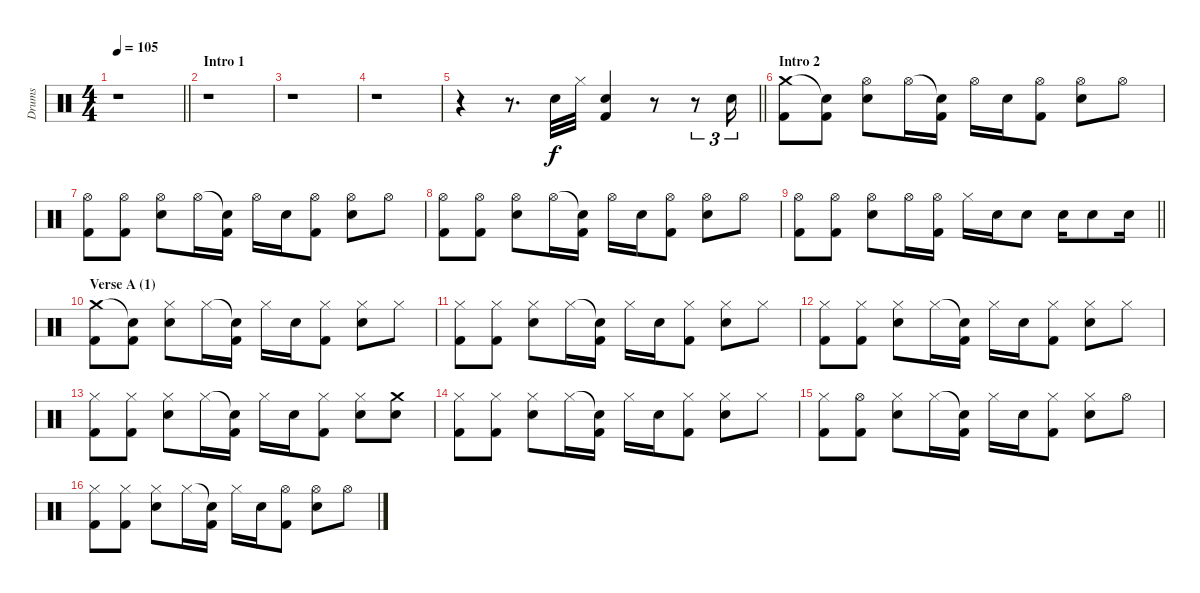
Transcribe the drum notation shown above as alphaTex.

\track ("Drums" "Drums") {instrument percussion}
\staff {score}
\articulation defaults
\ts (4 4)
\tempo 105
\clef neutral
\barLineRight lightlight
\ks aminor
r.1{dy f} |
\section ("" "Intro 1")
r.1 |
r.1 |
r.1 |
\barLineRight lightlight
r.4 r.8{d} "Electric Snare (hit)".32 "Hi-Hat (closed)".32 ("Electric Snare (hit)" "Kick (hit) 2").4 r.8 r.8{tu (3 2)} "Electric Snare (hit)".16{tu (3 2)} |
\section ("" "Intro 2")
("Crash medium (hit)" "Kick (hit) 2").8 ("Snare (hit)"{t} "Kick (hit) 2").8 ("Hi-Hat (open)" "Electric Snare (hit)").8 "Hi-Hat (open)".16 ("Snare (hit)"{t} "Kick (hit) 2").16 "Hi-Hat (open)".16 "Electric Snare (hit)".16 ("Hi-Hat (open)" "Kick (hit) 2").8 ("Hi-Hat (open)" "Electric Snare (hit)").8 "Hi-Hat (open)".8 |
("Hi-Hat (open)" "Kick (hit) 2").8 ("Hi-Hat (open)" "Kick (hit) 2").8 ("Hi-Hat (open)" "Electric Snare (hit)").8 "Hi-Hat (open)".16 ("Snare (hit)"{t} "Kick (hit) 2").16 "Hi-Hat (open)".16 "Electric Snare (hit)".16 ("Hi-Hat (open)" "Kick (hit) 2").8 ("Hi-Hat (open)" "Electric Snare (hit)").8 "Hi-Hat (open)".8 |
("Hi-Hat (open)" "Kick (hit) 2").8 ("Hi-Hat (open)" "Kick (hit) 2").8 ("Hi-Hat (open)" "Electric Snare (hit)").8 "Hi-Hat (open)".16 ("Snare (hit)"{t} "Kick (hit) 2").16 "Hi-Hat (open)".16 "Electric Snare (hit)".16 ("Hi-Hat (open)" "Kick (hit) 2").8 ("Hi-Hat (open)" "Electric Snare (hit)").8 "Hi-Hat (open)".8 |
\barLineRight lightlight
("Hi-Hat (open)" "Kick (hit) 2").8 ("Hi-Hat (open)" "Kick (hit) 2").8 ("Hi-Hat (open)" "Electric Snare (hit)").8 "Hi-Hat (open)".16 ("Hi-Hat (open)" "Kick (hit) 2").16 "Hi-Hat (closed)".16 "Electric Snare (hit)".16 "Electric Snare (hit)".8 "Electric Snare (hit)".16 "Electric Snare (hit)".8 "Electric Snare (hit)".16 |
\section ("" "Verse A (1)")
("Crash medium (hit)" "Kick (hit) 2").8 ("Snare (hit)"{t} "Kick (hit) 2").8 ("Hi-Hat (closed)" "Electric Snare (hit)").8 "Hi-Hat (closed)".16 ("Snare (hit)"{t} "Kick (hit) 2").16 "Hi-Hat (closed)".16 "Electric Snare (hit)".16 ("Hi-Hat (closed)" "Kick (hit) 2").8 ("Hi-Hat (closed)" "Electric Snare (hit)").8 "Hi-Hat (closed)".8 |
("Hi-Hat (closed)" "Kick (hit) 2").8 ("Hi-Hat (closed)" "Kick (hit) 2").8 ("Hi-Hat (closed)" "Electric Snare (hit)").8 "Hi-Hat (closed)".16 ("Snare (hit)"{t} "Kick (hit) 2").16 "Hi-Hat (closed)".16 "Electric Snare (hit)".16 ("Hi-Hat (closed)" "Kick (hit) 2").8 ("Hi-Hat (closed)" "Electric Snare (hit)").8 "Hi-Hat (closed)".8 |
("Hi-Hat (closed)" "Kick (hit) 2").8 ("Hi-Hat (closed)" "Kick (hit) 2").8 ("Hi-Hat (closed)" "Electric Snare (hit)").8 "Hi-Hat (closed)".16 ("Snare (hit)"{t} "Kick (hit) 2").16 "Hi-Hat (closed)".16 "Electric Snare (hit)".16 ("Hi-Hat (closed)" "Kick (hit) 2").8 ("Hi-Hat (closed)" "Electric Snare (hit)").8 "Hi-Hat (closed)".8 |
("Hi-Hat (closed)" "Kick (hit) 2").8 ("Hi-Hat (closed)" "Kick (hit) 2").8 ("Hi-Hat (closed)" "Electric Snare (hit)").8 "Hi-Hat (closed)".16 ("Snare (hit)"{t} "Kick (hit) 2").16 "Hi-Hat (closed)".16 "Electric Snare (hit)".16 ("Hi-Hat (closed)" "Kick (hit) 2").8 ("Hi-Hat (closed)" "Electric Snare (hit)").8 ("Crash medium (hit)" "Electric Snare (hit)").8 |
("Hi-Hat (closed)" "Kick (hit) 2").8 ("Hi-Hat (closed)" "Kick (hit) 2").8 ("Hi-Hat (closed)" "Electric Snare (hit)").8 "Hi-Hat (closed)".16 ("Snare (hit)"{t} "Kick (hit) 2").16 "Hi-Hat (closed)".16 "Electric Snare (hit)".16 ("Hi-Hat (closed)" "Kick (hit) 2").8 ("Hi-Hat (closed)" "Electric Snare (hit)").8 "Hi-Hat (closed)".8 |
("Hi-Hat (closed)" "Kick (hit) 2").8 ("Hi-Hat (open)" "Kick (hit) 2").8 ("Hi-Hat (closed)" "Electric Snare (hit)").8 "Hi-Hat (closed)".16 ("Snare (hit)"{t} "Kick (hit) 2").16 "Hi-Hat (closed)".16 "Electric Snare (hit)".16 ("Hi-Hat (closed)" "Kick (hit) 2").8 ("Hi-Hat (closed)" "Electric Snare (hit)").8 "Hi-Hat (open)".8 |
("Hi-Hat (closed)" "Kick (hit) 2").8 ("Hi-Hat (closed)" "Kick (hit) 2").8 ("Hi-Hat (closed)" "Electric Snare (hit)").8 "Hi-Hat (closed)".16 ("Snare (hit)"{t} "Kick (hit) 2").16 "Hi-Hat (closed)".16 "Electric Snare (hit)".16 ("Hi-Hat (open)" "Kick (hit) 2").8 ("Hi-Hat (open)" "Electric Snare (hit)").8 "Hi-Hat (open)".8
